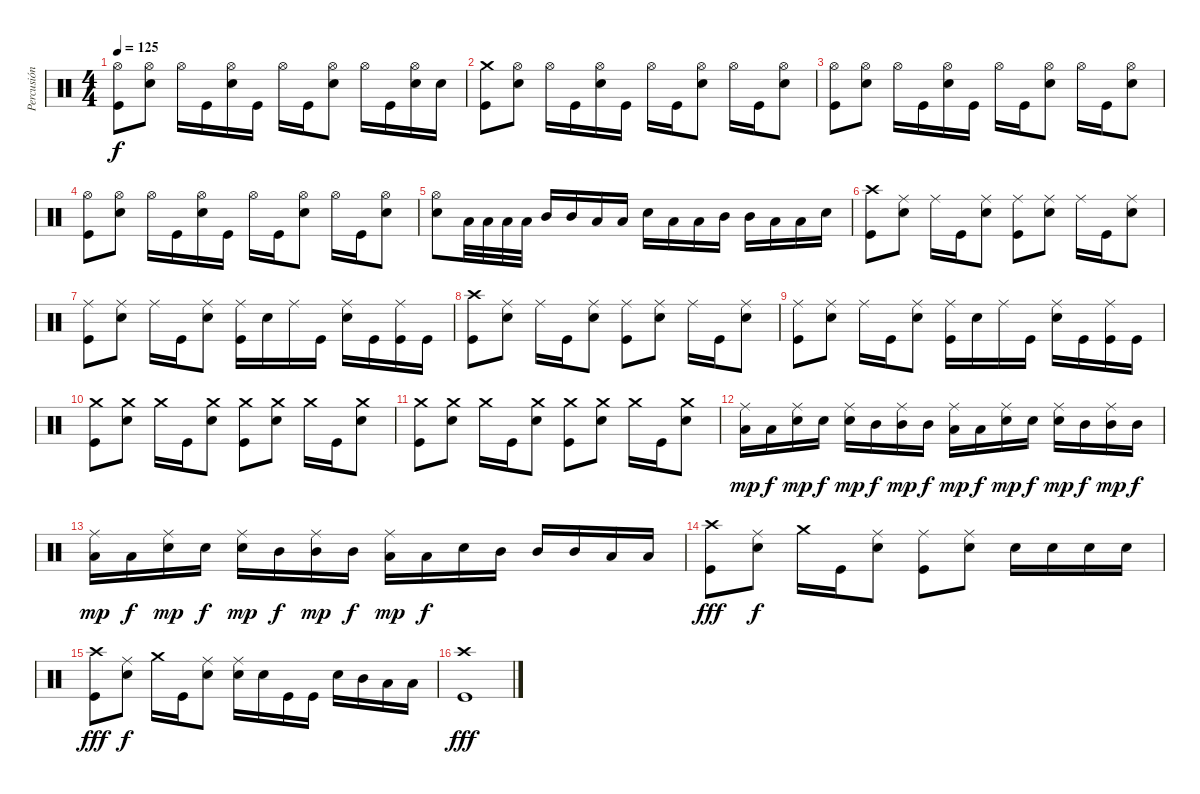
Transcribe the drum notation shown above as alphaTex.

\track ("Percusión" "Percusión") {instrument percussion}
\staff {score}
\articulation defaults
\ts (4 4)
\tempo 125
\clef neutral
\ks c
("Kick (hit)" "Hi-Hat (open)").8{dy f} ("Snare (hit) 2" "Hi-Hat (open)").8 "Hi-Hat (open)".16 "Kick (hit)".16 ("Snare (hit) 2" "Hi-Hat (open)").16 "Kick (hit)".16 "Hi-Hat (open)".16 "Kick (hit)".16 ("Snare (hit) 2" "Hi-Hat (open)").8 "Hi-Hat (open)".16 "Kick (hit)".16 ("Snare (hit) 2" "Hi-Hat (open)").16 "Snare (hit) 2".16 |
("Kick (hit)" "Crash medium (hit)").8 ("Snare (hit) 2" "Hi-Hat (open)").8 "Hi-Hat (open)".16 "Kick (hit)".16 ("Snare (hit) 2" "Hi-Hat (open)").16 "Kick (hit)".16 "Hi-Hat (open)".16 "Kick (hit)".16 ("Snare (hit) 2" "Hi-Hat (open)").8 "Hi-Hat (open)".16 "Kick (hit)".16 ("Snare (hit) 2" "Hi-Hat (open)").8 |
("Kick (hit)" "Hi-Hat (open)").8 ("Snare (hit) 2" "Hi-Hat (open)").8 "Hi-Hat (open)".16 "Kick (hit)".16 ("Snare (hit) 2" "Hi-Hat (open)").16 "Kick (hit)".16 "Hi-Hat (open)".16 "Kick (hit)".16 ("Snare (hit) 2" "Hi-Hat (open)").8 "Hi-Hat (open)".16 "Kick (hit)".16 ("Snare (hit) 2" "Hi-Hat (open)").8 |
("Kick (hit)" "Hi-Hat (open)").8 ("Snare (hit) 2" "Hi-Hat (open)").8 "Hi-Hat (open)".16 "Kick (hit)".16 ("Snare (hit) 2" "Hi-Hat (open)").16 "Kick (hit)".16 "Hi-Hat (open)".16 "Kick (hit)".16 ("Snare (hit) 2" "Hi-Hat (open)").8 "Hi-Hat (open)".16 "Kick (hit)".16 ("Snare (hit) 2" "Hi-Hat (open)").8 |
("Snare (hit) 2" "Hi-Hat (open)").8 "Low Tom (hit)".32 "Low Tom (hit)".32 "Low Tom (hit)".32 "Low Tom (hit)".32 "Mid Tom (hit)".16 "Mid Tom (hit)".16 "Low Tom (hit)".16 "Low Tom (hit)".16 "Snare (hit) 2".16 "Low Tom (hit)".16 "Low Tom (hit)".16 "Mid Tom (hit)".16 "Mid Tom (hit)".16 "Low Tom (hit)".16 "Low Tom (hit)".16 "Snare (hit) 2".16 |
("Kick (hit)" "Crash high (hit)").8 ("Snare (hit) 2" "Ride (middle)").8 "Ride (middle)".16 "Kick (hit)".16 ("Snare (hit) 2" "Ride (middle)").8 ("Kick (hit)" "Ride (middle)").8 ("Snare (hit) 2" "Ride (middle)").8 "Ride (middle)".16 "Kick (hit)".16 ("Snare (hit) 2" "Ride (middle)").8 |
("Kick (hit)" "Ride (middle)").8 ("Snare (hit) 2" "Ride (middle)").8 "Ride (middle)".16 "Kick (hit)".16 ("Snare (hit) 2" "Ride (middle)").8 ("Kick (hit)" "Ride (middle)").16 "Snare (hit) 2".16 "Ride (middle)".16 "Kick (hit)".16 ("Snare (hit) 2" "Ride (middle)").16 "Kick (hit)".16 ("Kick (hit)" "Ride (middle)").16 "Kick (hit)".16 |
("Kick (hit)" "Crash high (hit)").8 ("Snare (hit) 2" "Ride (middle)").8 "Ride (middle)".16 "Kick (hit)".16 ("Snare (hit) 2" "Ride (middle)").8 ("Kick (hit)" "Ride (middle)").8 ("Snare (hit) 2" "Ride (middle)").8 "Ride (middle)".16 "Kick (hit)".16 ("Snare (hit) 2" "Ride (middle)").8 |
("Kick (hit)" "Ride (middle)").8 ("Snare (hit) 2" "Ride (middle)").8 "Ride (middle)".16 "Kick (hit)".16 ("Snare (hit) 2" "Ride (middle)").8 ("Kick (hit)" "Ride (middle)").16 "Snare (hit) 2".16 "Ride (middle)".16 "Kick (hit)".16 ("Snare (hit) 2" "Ride (middle)").16 "Kick (hit)".16 ("Kick (hit)" "Ride (middle)").16 "Kick (hit)".16 |
("Kick (hit)" "Crash medium (hit)").8 ("Snare (hit) 2" "Crash medium (hit)").8 "Crash medium (hit)".16 "Kick (hit)".16 ("Snare (hit) 2" "Crash medium (hit)").8 ("Kick (hit)" "Crash medium (hit)").8 ("Snare (hit) 2" "Crash medium (hit)").8 "Crash medium (hit)".16 "Kick (hit)".16 ("Snare (hit) 2" "Crash medium (hit)").8 |
("Kick (hit)" "Crash medium (hit)").8 ("Snare (hit) 2" "Crash medium (hit)").8 "Crash medium (hit)".16 "Kick (hit)".16 ("Snare (hit) 2" "Crash medium (hit)").8 ("Kick (hit)" "Crash medium (hit)").8 ("Snare (hit) 2" "Crash medium (hit)").8 "Crash medium (hit)".16 "Kick (hit)".16 ("Snare (hit) 2" "Crash medium (hit)").8 |
("Low Tom (hit)" "Ride (middle)").16{dy mp} "Low Tom (hit)".16{dy f} ("Snare (hit) 2" "Ride (middle)").16{dy mp} "Snare (hit) 2".16{dy f} ("Snare (hit) 2" "Ride (middle)").16{dy mp} "Mid Tom (hit)".16{dy f} ("Mid Tom (hit)" "Ride (middle)").16{dy mp} "Mid Tom (hit)".16{dy f} ("Low Tom (hit)" "Ride (middle)").16{dy mp} "Low Tom (hit)".16{dy f} ("Snare (hit) 2" "Ride (middle)").16{dy mp} "Snare (hit) 2".16{dy f} ("Snare (hit) 2" "Ride (middle)").16{dy mp} "Mid Tom (hit)".16{dy f} ("Mid Tom (hit)" "Ride (middle)").16{dy mp} "Mid Tom (hit)".16{dy f} |
("Low Tom (hit)" "Ride (middle)").16{dy mp} "Low Tom (hit)".16{dy f} ("Snare (hit) 2" "Ride (middle)").16{dy mp} "Snare (hit) 2".16{dy f} ("Snare (hit) 2" "Ride (middle)").16{dy mp} "Mid Tom (hit)".16{dy f} ("Mid Tom (hit)" "Ride (middle)").16{dy mp} "Mid Tom (hit)".16{dy f} ("Low Tom (hit)" "Ride (middle)").16{dy mp} "Low Tom (hit)".16{dy f} "Snare (hit) 2".16 "Mid Tom (hit)".16 "Mid Tom (hit)".16 "Mid Tom (hit)".16 "Low Tom (hit)".16 "Low Tom (hit)".16 |
("Kick (hit)" "Crash high (hit)").8{dy fff} ("Snare (hit) 2" "Ride (middle)").8{dy f} "Crash medium (hit)".16 "Kick (hit)".16 ("Snare (hit) 2" "Ride (middle)").8 ("Kick (hit)" "Ride (middle)").8 ("Snare (hit) 2" "Ride (middle)").8 "Snare (hit) 2".16 "Snare (hit) 2".16 "Snare (hit) 2".16 "Snare (hit) 2".16 |
("Kick (hit)" "Crash high (hit)").8{dy fff} ("Snare (hit) 2" "Ride (middle)").8{dy f} "Crash medium (hit)".16 "Kick (hit)".16 ("Snare (hit) 2" "Ride (middle)").8 ("Snare (hit) 2" "Ride (middle)").16 "Snare (hit) 2".16 "Kick (hit)".16 "Kick (hit)".16 "Snare (hit) 2".16 "Mid Tom (hit)".16 "Low Tom (hit)".16 "Low Tom (hit)".16 |
("Kick (hit)" "Crash high (hit)").1{dy fff}
